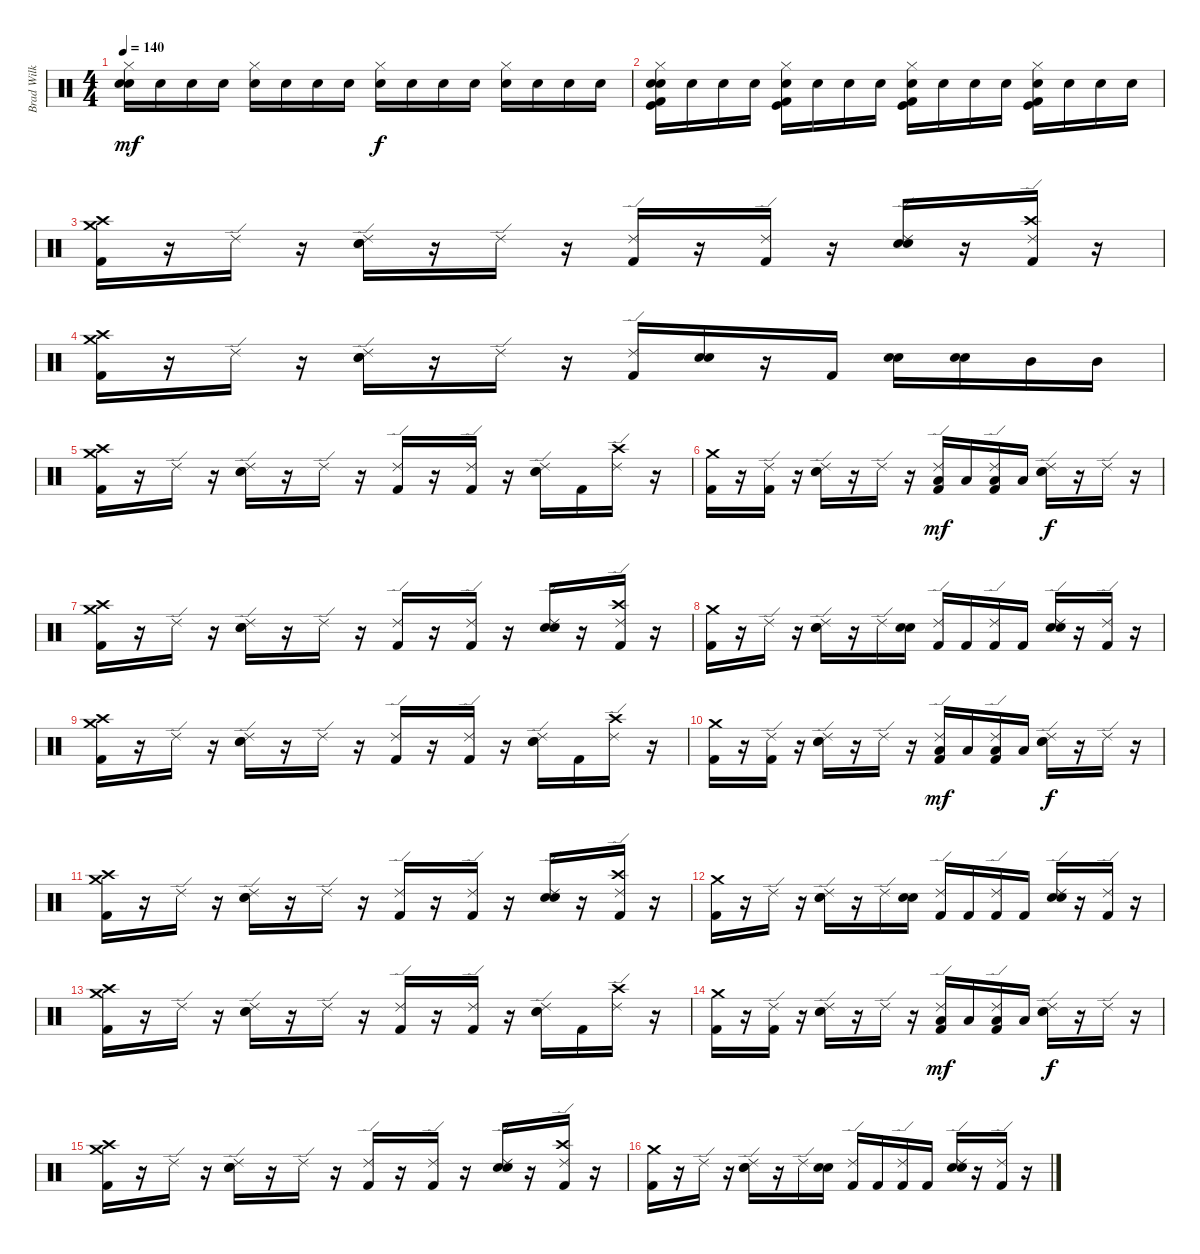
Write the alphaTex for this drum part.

\track ("Brad Wilk" "Brad Wilk") {instrument percussion}
\staff {score}
\articulation defaults
\ts (4 4)
\tempo 140
\clef neutral
\ks c
("Hi-Hat (closed)" "Snare (hit) 2" "Electric Snare (hit)").16{dy mf} "Snare (hit) 2".16 "Snare (hit) 2".16 "Snare (hit) 2".16 ("Hi-Hat (closed)" "Snare (hit) 2").16 "Snare (hit) 2".16 "Snare (hit) 2".16 "Snare (hit) 2".16 ("Hi-Hat (closed)" "Snare (hit) 2").16{dy f} "Snare (hit) 2".16 "Snare (hit) 2".16 "Snare (hit) 2".16 ("Hi-Hat (closed)" "Snare (hit) 2").16 "Snare (hit) 2".16 "Snare (hit) 2".16 "Snare (hit) 2".16 |
("Hi-Hat (closed)" "Snare (hit) 2" "Electric Snare (hit)" "Kick (hit)" "Kick (hit) 2").16 "Snare (hit) 2".16 "Snare (hit) 2".16 "Snare (hit) 2".16 ("Hi-Hat (closed)" "Snare (hit) 2" "Kick (hit) 2" "Kick (hit)").16 "Snare (hit) 2".16 "Snare (hit) 2".16 "Snare (hit) 2".16 ("Hi-Hat (closed)" "Snare (hit) 2" "Kick (hit)" "Kick (hit) 2").16 "Snare (hit) 2".16 "Snare (hit) 2".16 "Snare (hit) 2".16 ("Hi-Hat (closed)" "Snare (hit) 2" "Kick (hit)" "Kick (hit) 2").16 "Snare (hit) 2".16 "Snare (hit) 2".16 "Snare (hit) 2".16 |
("Crash medium (hit)" "Crash high (hit)" "Kick (hit) 2").16 r.16 "Ride (edge) 2".16 r.16 ("Ride (edge) 2" "Electric Snare (hit)" "Snare (hit) 2").16 r.16 "Ride (edge) 2".16 r.16 ("Ride (edge) 2" "Kick (hit) 2").16 r.16 ("Ride (edge) 2" "Kick (hit) 2").16 r.16 ("Ride (edge) 2" "Electric Snare (hit)" "Snare (hit) 2").16 r.16 ("Ride (edge) 2" "Crash high (hit)" "Kick (hit) 2").16 r.16 |
("Crash medium (hit)" "Crash high (hit)" "Kick (hit) 2").16 r.16 "Ride (edge) 2".16 r.16 ("Ride (edge) 2" "Electric Snare (hit)" "Snare (hit) 2").16 r.16 "Ride (edge) 2".16 r.16 ("Ride (edge) 2" "Kick (hit) 2").16 ("Electric Snare (hit)" "Snare (hit) 2").16 r.16 "Kick (hit) 2".16 ("Electric Snare (hit)" "Snare (hit) 2").16 ("Electric Snare (hit)" "Electric Snare (hit)").16 "Mid Tom (hit)".16 "Mid Tom (hit)".16 |
("Crash medium (hit)" "Crash high (hit)" "Kick (hit) 2").16 r.16 "Ride (edge) 2".16 r.16 ("Ride (edge) 2" "Electric Snare (hit)" "Snare (hit) 2").16 r.16 "Ride (edge) 2".16 r.16 ("Ride (edge) 2" "Kick (hit) 2").16 r.16 ("Ride (edge) 2" "Kick (hit) 2").16 r.16 ("Ride (edge) 2" "Electric Snare (hit)" "Snare (hit) 2").16 "Kick (hit) 2".16 ("Ride (edge) 2" "Crash high (hit)").16 r.16 |
("Crash medium (hit)" "Kick (hit) 2").16 r.16 ("Ride (edge) 2" "Kick (hit) 2").16 r.16 ("Ride (edge) 2" "Electric Snare (hit)" "Snare (hit) 2").16 r.16 "Ride (edge) 2".16 r.16 ("Ride (edge) 2" "Low Tom (hit)" "Kick (hit) 2").16{dy mf} "Low Tom (hit)".16 ("Ride (edge) 2" "Low Tom (hit)" "Kick (hit) 2").16 "Low Tom (hit)".16 ("Ride (edge) 2" "Electric Snare (hit)" "Snare (hit) 2").16{dy f} r.16 "Ride (edge) 2".16 r.16 |
("Crash medium (hit)" "Crash high (hit)" "Kick (hit) 2").16 r.16 "Ride (edge) 2".16 r.16 ("Ride (edge) 2" "Electric Snare (hit)" "Snare (hit) 2").16 r.16 "Ride (edge) 2".16 r.16 ("Ride (edge) 2" "Kick (hit) 2").16 r.16 ("Ride (edge) 2" "Kick (hit) 2").16 r.16 ("Ride (edge) 2" "Electric Snare (hit)" "Snare (hit) 2").16 r.16 ("Ride (edge) 2" "Crash high (hit)" "Kick (hit) 2").16 r.16 |
("Crash medium (hit)" "Kick (hit) 2").16 r.16 "Ride (edge) 2".16 r.16 ("Ride (edge) 2" "Electric Snare (hit)" "Snare (hit) 2").16 r.16 "Ride (edge) 2".16 ("Electric Snare (hit)" "Snare (hit) 2").16 ("Ride (edge) 2" "Kick (hit) 2").16 "Kick (hit) 2".16 ("Ride (edge) 2" "Kick (hit) 2").16 "Kick (hit) 2".16 ("Ride (edge) 2" "Electric Snare (hit)" "Snare (hit) 2").16 r.16 ("Ride (edge) 2" "Kick (hit) 2").16 r.16 |
("Crash medium (hit)" "Crash high (hit)" "Kick (hit) 2").16 r.16 "Ride (edge) 2".16 r.16 ("Ride (edge) 2" "Electric Snare (hit)" "Snare (hit) 2").16 r.16 "Ride (edge) 2".16 r.16 ("Ride (edge) 2" "Kick (hit) 2").16 r.16 ("Ride (edge) 2" "Kick (hit) 2").16 r.16 ("Ride (edge) 2" "Electric Snare (hit)" "Snare (hit) 2").16 "Kick (hit) 2".16 ("Ride (edge) 2" "Crash high (hit)").16 r.16 |
("Crash medium (hit)" "Kick (hit) 2").16 r.16 ("Ride (edge) 2" "Kick (hit) 2").16 r.16 ("Ride (edge) 2" "Electric Snare (hit)" "Snare (hit) 2").16 r.16 "Ride (edge) 2".16 r.16 ("Ride (edge) 2" "Low Tom (hit)" "Kick (hit) 2").16{dy mf} "Low Tom (hit)".16 ("Ride (edge) 2" "Low Tom (hit)" "Kick (hit) 2").16 "Low Tom (hit)".16 ("Ride (edge) 2" "Electric Snare (hit)" "Snare (hit) 2").16{dy f} r.16 "Ride (edge) 2".16 r.16 |
("Crash medium (hit)" "Crash high (hit)" "Kick (hit) 2").16 r.16 "Ride (edge) 2".16 r.16 ("Ride (edge) 2" "Electric Snare (hit)" "Snare (hit) 2").16 r.16 "Ride (edge) 2".16 r.16 ("Ride (edge) 2" "Kick (hit) 2").16 r.16 ("Ride (edge) 2" "Kick (hit) 2").16 r.16 ("Ride (edge) 2" "Electric Snare (hit)" "Snare (hit) 2").16 r.16 ("Ride (edge) 2" "Crash high (hit)" "Kick (hit) 2").16 r.16 |
("Crash medium (hit)" "Kick (hit) 2").16 r.16 "Ride (edge) 2".16 r.16 ("Ride (edge) 2" "Electric Snare (hit)" "Snare (hit) 2").16 r.16 "Ride (edge) 2".16 ("Electric Snare (hit)" "Snare (hit) 2").16 ("Ride (edge) 2" "Kick (hit) 2").16 "Kick (hit) 2".16 ("Ride (edge) 2" "Kick (hit) 2").16 "Kick (hit) 2".16 ("Ride (edge) 2" "Electric Snare (hit)" "Snare (hit) 2").16 r.16 ("Ride (edge) 2" "Kick (hit) 2").16 r.16 |
("Crash medium (hit)" "Crash high (hit)" "Kick (hit) 2").16 r.16 "Ride (edge) 2".16 r.16 ("Ride (edge) 2" "Electric Snare (hit)" "Snare (hit) 2").16 r.16 "Ride (edge) 2".16 r.16 ("Ride (edge) 2" "Kick (hit) 2").16 r.16 ("Ride (edge) 2" "Kick (hit) 2").16 r.16 ("Ride (edge) 2" "Electric Snare (hit)" "Snare (hit) 2").16 "Kick (hit) 2".16 ("Ride (edge) 2" "Crash high (hit)").16 r.16 |
("Crash medium (hit)" "Kick (hit) 2").16 r.16 ("Ride (edge) 2" "Kick (hit) 2").16 r.16 ("Ride (edge) 2" "Electric Snare (hit)" "Snare (hit) 2").16 r.16 "Ride (edge) 2".16 r.16 ("Ride (edge) 2" "Low Tom (hit)" "Kick (hit) 2").16{dy mf} "Low Tom (hit)".16 ("Ride (edge) 2" "Low Tom (hit)" "Kick (hit) 2").16 "Low Tom (hit)".16 ("Ride (edge) 2" "Electric Snare (hit)" "Snare (hit) 2").16{dy f} r.16 "Ride (edge) 2".16 r.16 |
("Crash medium (hit)" "Crash high (hit)" "Kick (hit) 2").16 r.16 "Ride (edge) 2".16 r.16 ("Ride (edge) 2" "Electric Snare (hit)" "Snare (hit) 2").16 r.16 "Ride (edge) 2".16 r.16 ("Ride (edge) 2" "Kick (hit) 2").16 r.16 ("Ride (edge) 2" "Kick (hit) 2").16 r.16 ("Ride (edge) 2" "Electric Snare (hit)" "Snare (hit) 2").16 r.16 ("Ride (edge) 2" "Crash high (hit)" "Kick (hit) 2").16 r.16 |
("Crash medium (hit)" "Kick (hit) 2").16 r.16 "Ride (edge) 2".16 r.16 ("Ride (edge) 2" "Electric Snare (hit)" "Snare (hit) 2").16 r.16 "Ride (edge) 2".16 ("Electric Snare (hit)" "Snare (hit) 2").16 ("Ride (edge) 2" "Kick (hit) 2").16 "Kick (hit) 2".16 ("Ride (edge) 2" "Kick (hit) 2").16 "Kick (hit) 2".16 ("Ride (edge) 2" "Electric Snare (hit)" "Snare (hit) 2").16 r.16 ("Ride (edge) 2" "Kick (hit) 2").16 r.16
